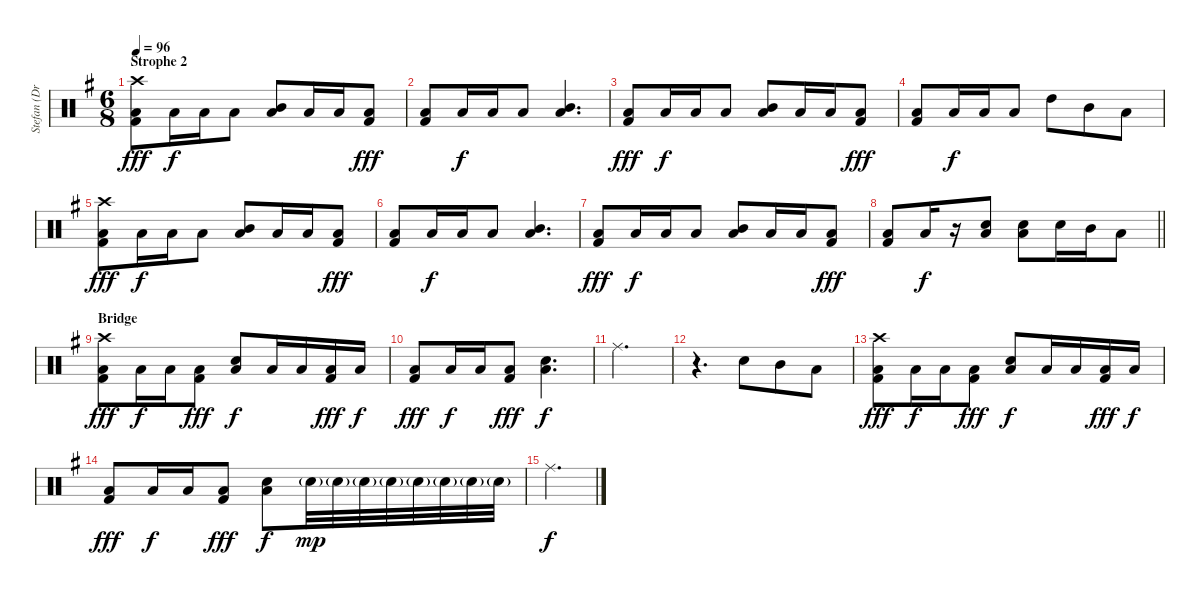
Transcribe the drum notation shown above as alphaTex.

\track ("Stefan (Drums)" "Stefan (Dr") {instrument percussion}
\staff {score}
\articulation defaults
\ts (6 8)
\section ("" "Strophe 2")
\tempo 96
\clef neutral
\ks g
("Crash high (hit)" "Low Tom (hit)" "Kick (hit) 2").8{dy fff} "Low Tom (hit)".16{dy f} "Low Tom (hit)".16 "Low Tom (hit)".8 ("Mid Tom (hit)" "Low Tom (hit)").8 "Low Tom (hit)".16 "Low Tom (hit)".16 ("Low Tom (hit)" "Kick (hit) 2").8{dy fff} |
("Low Tom (hit)" "Kick (hit) 2").8 "Low Tom (hit)".16{dy f} "Low Tom (hit)".16 "Low Tom (hit)".8 ("Mid Tom (hit)" "Low Tom (hit)").4{d} |
("Low Tom (hit)" "Kick (hit) 2").8{dy fff} "Low Tom (hit)".16{dy f} "Low Tom (hit)".16 "Low Tom (hit)".8 ("Mid Tom (hit)" "Low Tom (hit)").8 "Low Tom (hit)".16 "Low Tom (hit)".16 ("Low Tom (hit)" "Kick (hit) 2").8{dy fff} |
("Low Tom (hit)" "Kick (hit) 2").8 "Low Tom (hit)".16{dy f} "Low Tom (hit)".16 "Low Tom (hit)".8 "High Tom (hit)".8 "Mid Tom (hit)".8 "Low Tom (hit)".8 |
("Crash high (hit)" "Low Tom (hit)" "Kick (hit) 2").8{dy fff} "Low Tom (hit)".16{dy f} "Low Tom (hit)".16 "Low Tom (hit)".8 ("Mid Tom (hit)" "Low Tom (hit)").8 "Low Tom (hit)".16 "Low Tom (hit)".16 ("Low Tom (hit)" "Kick (hit) 2").8{dy fff} |
("Low Tom (hit)" "Kick (hit) 2").8 "Low Tom (hit)".16{dy f} "Low Tom (hit)".16 "Low Tom (hit)".8 ("Mid Tom (hit)" "Low Tom (hit)").4{d} |
("Low Tom (hit)" "Kick (hit) 2").8{dy fff} "Low Tom (hit)".16{dy f} "Low Tom (hit)".16 "Low Tom (hit)".8 ("Mid Tom (hit)" "Low Tom (hit)").8 "Low Tom (hit)".16 "Low Tom (hit)".16 ("Low Tom (hit)" "Kick (hit) 2").8{dy fff} |
\barLineRight lightlight
("Low Tom (hit)" "Kick (hit) 2").8 "Low Tom (hit)".16{dy f} r.16 ("Snare (hit) 2" "Low Tom (hit)").8 ("Snare (hit) 2" "Low Tom (hit)").8 "Snare (hit) 2".16 "Mid Tom (hit)".16 "Low Tom (hit)".8 |
\section ("" "Bridge")
("Crash high (hit)" "Low Tom (hit)" "Kick (hit) 2").8{dy fff} "Low Tom (hit)".16{dy f} "Low Tom (hit)".16 ("Low Tom (hit)" "Kick (hit) 2").8{dy fff} ("Snare (hit) 2" "Low Tom (hit)").8{dy f} "Low Tom (hit)".16 "Low Tom (hit)".16 ("Low Tom (hit)" "Kick (hit) 2").16{dy fff} "Low Tom (hit)".16{dy f} |
("Low Tom (hit)" "Kick (hit) 2").8{dy fff} "Low Tom (hit)".16{dy f} "Low Tom (hit)".16 ("Low Tom (hit)" "Kick (hit) 2").8{dy fff} ("Snare (hit) 2" "Low Tom (hit)").4{d dy f} |
"Ride (middle)".2{d} |
r.4{d} "Snare (hit) 2".8 "Mid Tom (hit)".8 "Low Tom (hit)".8 |
("Crash high (hit)" "Low Tom (hit)" "Kick (hit) 2").8{dy fff} "Low Tom (hit)".16{dy f} "Low Tom (hit)".16 ("Low Tom (hit)" "Kick (hit) 2").8{dy fff} ("Snare (hit) 2" "Low Tom (hit)").8{dy f} "Low Tom (hit)".16 "Low Tom (hit)".16 ("Low Tom (hit)" "Kick (hit) 2").16{dy fff} "Low Tom (hit)".16{dy f} |
("Low Tom (hit)" "Kick (hit) 2").8{dy fff} "Low Tom (hit)".16{dy f} "Low Tom (hit)".16 ("Low Tom (hit)" "Kick (hit) 2").8{dy fff} ("Snare (hit) 2" "Low Tom (hit)").8{dy f} "Snare (hit) 2"{g}.32{dy mp} "Snare (hit) 2"{g}.32 "Snare (hit) 2"{g}.32 "Snare (hit) 2"{g}.32 "Snare (hit) 2"{g}.32 "Snare (hit) 2"{g}.32 "Snare (hit) 2"{g}.32 "Snare (hit) 2"{g}.32 |
"Ride (middle)".2{d dy f}
